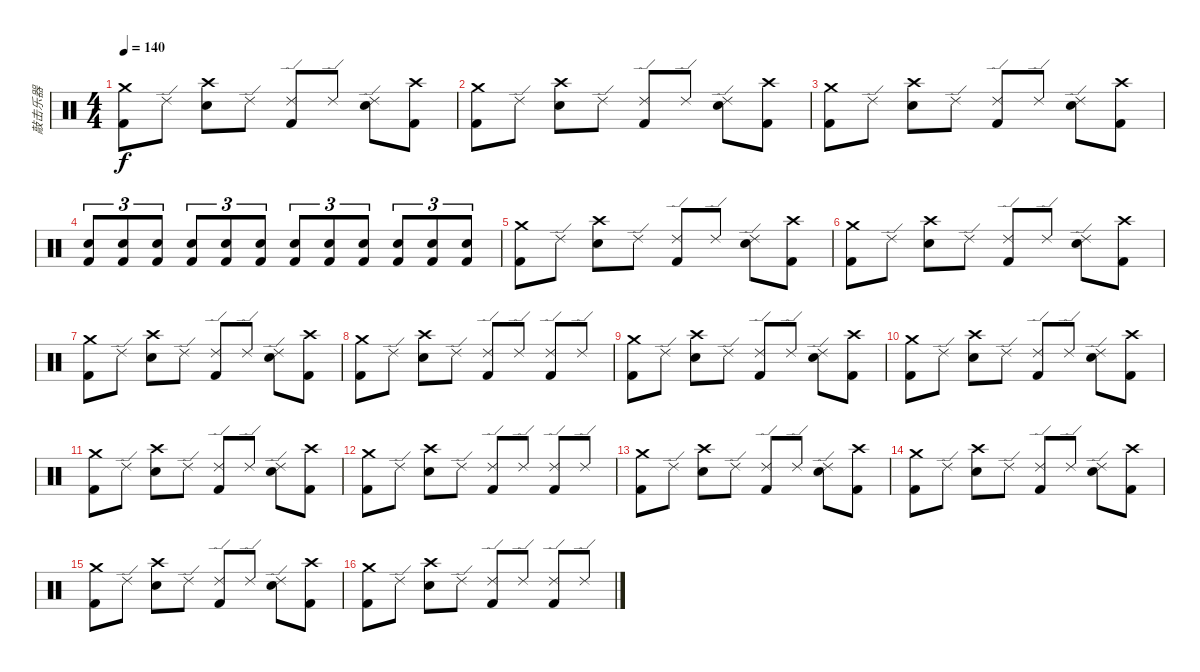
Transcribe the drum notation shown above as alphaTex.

\track ("敲击乐器" "敲击乐器") {instrument percussion}
\staff {score}
\articulation defaults
\ts (4 4)
\tempo 140
\clef neutral
\ks c
("Crash medium (hit)" "Kick (hit) 2").8{dy f} "Ride (edge) 2".8 ("Crash high (hit)" "Snare (hit) 2").8 "Ride (edge) 2".8 ("Ride (edge) 2" "Kick (hit) 2").8 "Ride (edge) 2".8 ("Ride (edge) 2" "Snare (hit) 2").8 ("Crash high (hit)" "Kick (hit) 2").8 |
("Crash medium (hit)" "Kick (hit) 2").8 "Ride (edge) 2".8 ("Crash high (hit)" "Snare (hit) 2").8 "Ride (edge) 2".8 ("Ride (edge) 2" "Kick (hit) 2").8 "Ride (edge) 2".8 ("Ride (edge) 2" "Snare (hit) 2").8 ("Crash high (hit)" "Kick (hit) 2").8 |
("Crash medium (hit)" "Kick (hit) 2").8 "Ride (edge) 2".8 ("Crash high (hit)" "Snare (hit) 2").8 "Ride (edge) 2".8 ("Ride (edge) 2" "Kick (hit) 2").8 "Ride (edge) 2".8 ("Ride (edge) 2" "Snare (hit) 2").8 ("Crash high (hit)" "Kick (hit) 2").8 |
("Electric Snare (hit)" "Kick (hit) 2").8{tu (3 2)} ("Electric Snare (hit)" "Kick (hit) 2").8{tu (3 2)} ("Electric Snare (hit)" "Kick (hit) 2").8{tu (3 2)} ("Electric Snare (hit)" "Kick (hit) 2").8{tu (3 2)} ("Electric Snare (hit)" "Kick (hit) 2").8{tu (3 2)} ("Electric Snare (hit)" "Kick (hit) 2").8{tu (3 2)} ("Electric Snare (hit)" "Kick (hit) 2").8{tu (3 2)} ("Electric Snare (hit)" "Kick (hit) 2").8{tu (3 2)} ("Electric Snare (hit)" "Kick (hit) 2").8{tu (3 2)} ("Electric Snare (hit)" "Kick (hit) 2").8{tu (3 2)} ("Electric Snare (hit)" "Kick (hit) 2").8{tu (3 2)} ("Electric Snare (hit)" "Kick (hit) 2").8{tu (3 2)} |
("Crash medium (hit)" "Kick (hit) 2").8 "Ride (edge) 2".8 ("Crash high (hit)" "Snare (hit) 2").8 "Ride (edge) 2".8 ("Ride (edge) 2" "Kick (hit) 2").8 "Ride (edge) 2".8 ("Ride (edge) 2" "Snare (hit) 2").8 ("Crash high (hit)" "Kick (hit) 2").8 |
("Crash medium (hit)" "Kick (hit) 2").8 "Ride (edge) 2".8 ("Crash high (hit)" "Snare (hit) 2").8 "Ride (edge) 2".8 ("Ride (edge) 2" "Kick (hit) 2").8 "Ride (edge) 2".8 ("Ride (edge) 2" "Snare (hit) 2").8 ("Crash high (hit)" "Kick (hit) 2").8 |
("Crash medium (hit)" "Kick (hit) 2").8 "Ride (edge) 2".8 ("Crash high (hit)" "Snare (hit) 2").8 "Ride (edge) 2".8 ("Ride (edge) 2" "Kick (hit) 2").8 "Ride (edge) 2".8 ("Ride (edge) 2" "Snare (hit) 2").8 ("Crash high (hit)" "Kick (hit) 2").8 |
("Crash medium (hit)" "Kick (hit) 2").8 "Ride (edge) 2".8 ("Crash high (hit)" "Snare (hit) 2").8 "Ride (edge) 2".8 ("Ride (edge) 2" "Kick (hit) 2").8 "Ride (edge) 2".8 ("Ride (edge) 2" "Kick (hit) 2").8 "Ride (edge) 2".8 |
("Crash medium (hit)" "Kick (hit) 2").8 "Ride (edge) 2".8 ("Crash high (hit)" "Snare (hit) 2").8 "Ride (edge) 2".8 ("Ride (edge) 2" "Kick (hit) 2").8 "Ride (edge) 2".8 ("Ride (edge) 2" "Snare (hit) 2").8 ("Crash high (hit)" "Kick (hit) 2").8 |
("Crash medium (hit)" "Kick (hit) 2").8 "Ride (edge) 2".8 ("Crash high (hit)" "Snare (hit) 2").8 "Ride (edge) 2".8 ("Ride (edge) 2" "Kick (hit) 2").8 "Ride (edge) 2".8 ("Ride (edge) 2" "Snare (hit) 2").8 ("Crash high (hit)" "Kick (hit) 2").8 |
("Crash medium (hit)" "Kick (hit) 2").8 "Ride (edge) 2".8 ("Crash high (hit)" "Snare (hit) 2").8 "Ride (edge) 2".8 ("Ride (edge) 2" "Kick (hit) 2").8 "Ride (edge) 2".8 ("Ride (edge) 2" "Snare (hit) 2").8 ("Crash high (hit)" "Kick (hit) 2").8 |
("Crash medium (hit)" "Kick (hit) 2").8 "Ride (edge) 2".8 ("Crash high (hit)" "Snare (hit) 2").8 "Ride (edge) 2".8 ("Ride (edge) 2" "Kick (hit) 2").8 "Ride (edge) 2".8 ("Ride (edge) 2" "Kick (hit) 2").8 "Ride (edge) 2".8 |
("Crash medium (hit)" "Kick (hit) 2").8 "Ride (edge) 2".8 ("Crash high (hit)" "Snare (hit) 2").8 "Ride (edge) 2".8 ("Ride (edge) 2" "Kick (hit) 2").8 "Ride (edge) 2".8 ("Ride (edge) 2" "Snare (hit) 2").8 ("Crash high (hit)" "Kick (hit) 2").8 |
("Crash medium (hit)" "Kick (hit) 2").8 "Ride (edge) 2".8 ("Crash high (hit)" "Snare (hit) 2").8 "Ride (edge) 2".8 ("Ride (edge) 2" "Kick (hit) 2").8 "Ride (edge) 2".8 ("Ride (edge) 2" "Snare (hit) 2").8 ("Crash high (hit)" "Kick (hit) 2").8 |
("Crash medium (hit)" "Kick (hit) 2").8 "Ride (edge) 2".8 ("Crash high (hit)" "Snare (hit) 2").8 "Ride (edge) 2".8 ("Ride (edge) 2" "Kick (hit) 2").8 "Ride (edge) 2".8 ("Ride (edge) 2" "Snare (hit) 2").8 ("Crash high (hit)" "Kick (hit) 2").8 |
("Crash medium (hit)" "Kick (hit) 2").8 "Ride (edge) 2".8 ("Crash high (hit)" "Snare (hit) 2").8 "Ride (edge) 2".8 ("Ride (edge) 2" "Kick (hit) 2").8 "Ride (edge) 2".8 ("Ride (edge) 2" "Kick (hit) 2").8 "Ride (edge) 2".8
